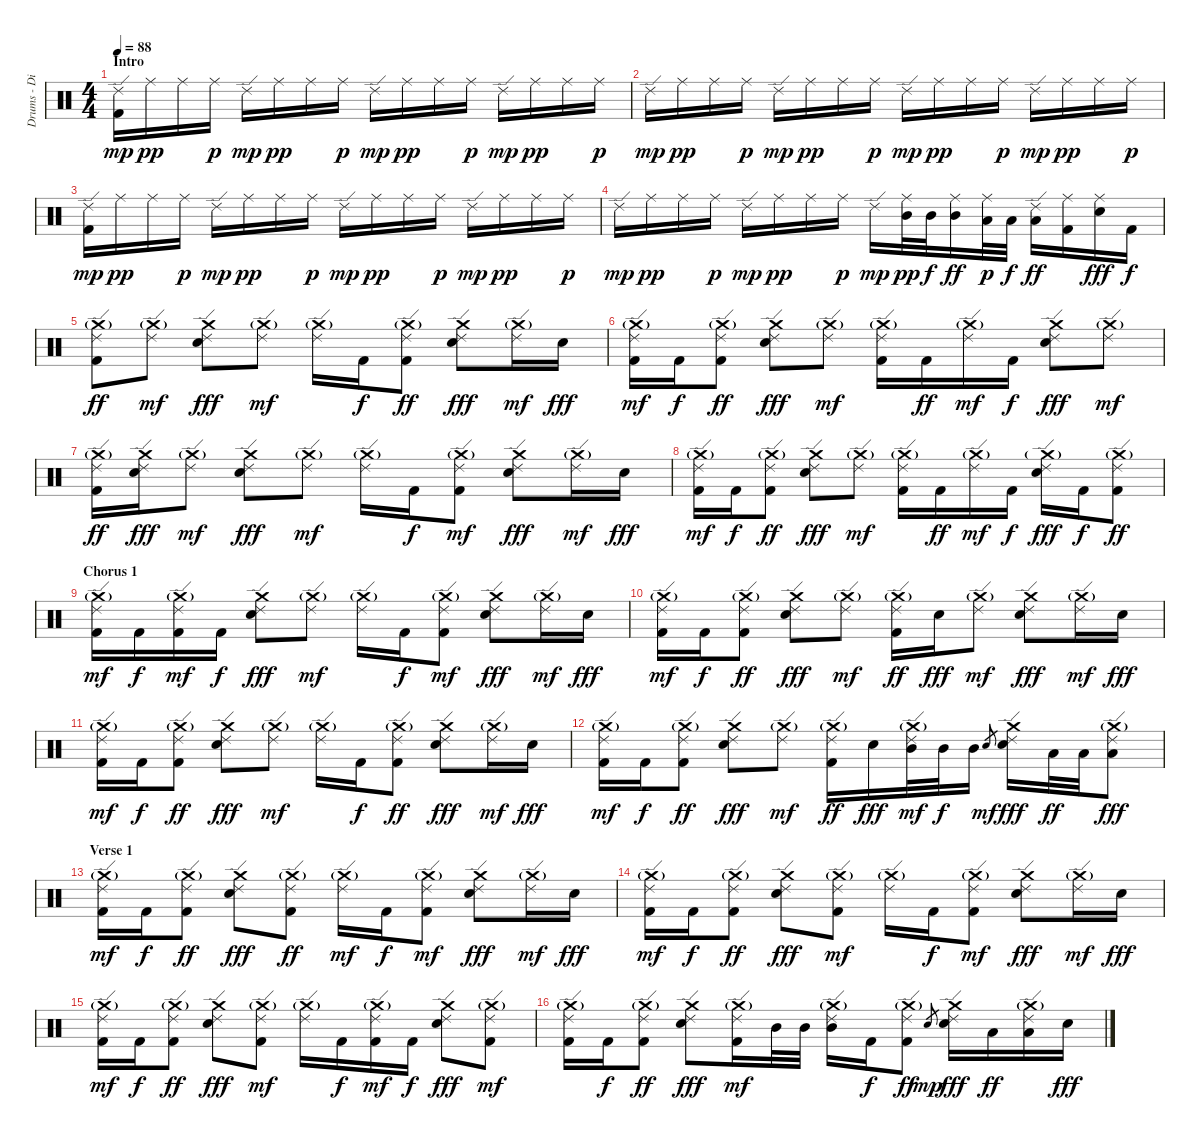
\track ("Drums - Dino Campanella" "Drums - Di") {instrument percussion}
\staff {score}
\articulation defaults
\ts (4 4)
\section ("" "Intro")
\tempo 88
\clef neutral
\ks c
("Ride (edge) 2" "Kick (hit) 2").16{dy mp} "Ride (middle)".16{dy pp} "Ride (middle)".16 "Ride (middle)".16{dy p} "Ride (edge) 2".16{dy mp} "Ride (middle)".16{dy pp} "Ride (middle)".16 "Ride (middle)".16{dy p} "Ride (edge) 2".16{dy mp} "Ride (middle)".16{dy pp} "Ride (middle)".16 "Ride (middle)".16{dy p} "Ride (edge) 2".16{dy mp} "Ride (middle)".16{dy pp} "Ride (middle)".16 "Ride (middle)".16{dy p} |
"Ride (edge) 2".16{dy mp} "Ride (middle)".16{dy pp} "Ride (middle)".16 "Ride (middle)".16{dy p} "Ride (edge) 2".16{dy mp} "Ride (middle)".16{dy pp} "Ride (middle)".16 "Ride (middle)".16{dy p} "Ride (edge) 2".16{dy mp} "Ride (middle)".16{dy pp} "Ride (middle)".16 "Ride (middle)".16{dy p} "Ride (edge) 2".16{dy mp} "Ride (middle)".16{dy pp} "Ride (middle)".16 "Ride (middle)".16{dy p} |
("Ride (edge) 2" "Kick (hit) 2").16{dy mp} "Ride (middle)".16{dy pp} "Ride (middle)".16 "Ride (middle)".16{dy p} "Ride (edge) 2".16{dy mp} "Ride (middle)".16{dy pp} "Ride (middle)".16 "Ride (middle)".16{dy p} "Ride (edge) 2".16{dy mp} "Ride (middle)".16{dy pp} "Ride (middle)".16 "Ride (middle)".16{dy p} "Ride (edge) 2".16{dy mp} "Ride (middle)".16{dy pp} "Ride (middle)".16 "Ride (middle)".16{dy p} |
"Ride (edge) 2".16{dy mp} "Ride (middle)".16{dy pp} "Ride (middle)".16 "Ride (middle)".16{dy p} "Ride (edge) 2".16{dy mp} "Ride (middle)".16{dy pp} "Ride (middle)".16 "Ride (middle)".16{dy p} "Ride (edge) 2".16{dy mp} ("Ride (middle)" "Mid Tom (hit)").32{dy pp} "Mid Tom (hit)".32{dy f} ("Ride (middle)" "Mid Tom (hit)").16{dy ff} ("Ride (middle)" "Low Tom (hit)").32{dy p} "Low Tom (hit)".32{dy f} ("Ride (edge) 2" "Low Tom (hit)").16{dy ff} ("Ride (middle)" "Kick (hit) 2").16 ("Ride (middle)" "Electric Snare (hit)").16{dy fff} "Kick (hit) 2".16{dy f} |
("Crash medium (hit)"{g} "Ride (edge) 2" "Kick (hit) 2").8{dy ff} ("Crash medium (hit)"{g} "Ride (edge) 2").8{dy mf} ("Crash medium (hit)" "Ride (edge) 2" "Electric Snare (hit)").8{dy fff} ("Crash medium (hit)"{g} "Ride (edge) 2").8{dy mf} ("Crash medium (hit)"{g} "Ride (edge) 2").16 "Kick (hit) 2".16{dy f} ("Crash medium (hit)"{g} "Ride (edge) 2" "Kick (hit) 2").8{dy ff} ("Crash medium (hit)" "Ride (edge) 2" "Electric Snare (hit)").8{dy fff} ("Crash medium (hit)"{g} "Ride (edge) 2").16{dy mf} "Electric Snare (hit)".16{dy fff} |
("Crash medium (hit)"{g} "Ride (edge) 2" "Kick (hit) 2").16{dy mf} "Kick (hit) 2".16{dy f} ("Crash medium (hit)"{g} "Ride (edge) 2" "Kick (hit) 2").8{dy ff} ("Crash medium (hit)" "Ride (edge) 2" "Electric Snare (hit)").8{dy fff} ("Crash medium (hit)"{g} "Ride (edge) 2").8{dy mf} ("Crash medium (hit)"{g} "Ride (edge) 2" "Kick (hit) 2").16 "Kick (hit) 2".16{dy ff} ("Crash medium (hit)"{g} "Ride (edge) 2").16{dy mf} "Kick (hit) 2".16{dy f} ("Crash medium (hit)" "Ride (edge) 2" "Electric Snare (hit)").8{dy fff} ("Crash medium (hit)"{g} "Ride (edge) 2").8{dy mf} |
("Crash medium (hit)"{g} "Ride (edge) 2" "Kick (hit) 2").16{dy ff} ("Crash medium (hit)" "Ride (edge) 2" "Electric Snare (hit)").16{dy fff} ("Crash medium (hit)"{g} "Ride (edge) 2").8{dy mf} ("Crash medium (hit)" "Ride (edge) 2" "Electric Snare (hit)").8{dy fff} ("Crash medium (hit)"{g} "Ride (edge) 2").8{dy mf} ("Crash medium (hit)"{g} "Ride (edge) 2").16 "Kick (hit) 2".16{dy f} ("Crash medium (hit)"{g} "Ride (edge) 2" "Kick (hit) 2").8{dy mf} ("Crash medium (hit)" "Ride (edge) 2" "Electric Snare (hit)").8{dy fff} ("Crash medium (hit)"{g} "Ride (edge) 2").16{dy mf} "Electric Snare (hit)".16{dy fff} |
("Crash medium (hit)"{g} "Ride (edge) 2" "Kick (hit) 2").16{dy mf} "Kick (hit) 2".16{dy f} ("Crash medium (hit)"{g} "Ride (edge) 2" "Kick (hit) 2").8{dy ff} ("Crash medium (hit)" "Ride (edge) 2" "Electric Snare (hit)").8{dy fff} ("Crash medium (hit)"{g} "Ride (edge) 2").8{dy mf} ("Crash medium (hit)"{g} "Ride (edge) 2" "Kick (hit) 2").16 "Kick (hit) 2".16{dy ff} ("Crash medium (hit)"{g} "Ride (edge) 2").16{dy mf} "Kick (hit) 2".16{dy f} ("Crash medium (hit)"{g} "Ride (edge) 2" "Electric Snare (hit)").16{dy fff} "Kick (hit) 2".16{dy f} ("Crash medium (hit)"{g} "Ride (edge) 2" "Kick (hit) 2").8{dy ff} |
\section ("" "Chorus 1")
("Crash medium (hit)"{g} "Ride (edge) 2" "Kick (hit) 2").16{dy mf} "Kick (hit) 2".16{dy f} ("Crash medium (hit)"{g} "Ride (edge) 2" "Kick (hit) 2").16{dy mf} "Kick (hit) 2".16{dy f} ("Crash medium (hit)" "Ride (edge) 2" "Electric Snare (hit)").8{dy fff} ("Crash medium (hit)"{g} "Ride (edge) 2").8{dy mf} ("Crash medium (hit)"{g} "Ride (edge) 2").16 "Kick (hit) 2".16{dy f} ("Crash medium (hit)"{g} "Ride (edge) 2" "Kick (hit) 2").8{dy mf} ("Crash medium (hit)" "Ride (edge) 2" "Electric Snare (hit)").8{dy fff} ("Crash medium (hit)"{g} "Ride (edge) 2").16{dy mf} "Electric Snare (hit)".16{dy fff} |
("Crash medium (hit)"{g} "Ride (edge) 2" "Kick (hit) 2").16{dy mf} "Kick (hit) 2".16{dy f} ("Crash medium (hit)"{g} "Ride (edge) 2" "Kick (hit) 2").8{dy ff} ("Crash medium (hit)" "Ride (edge) 2" "Electric Snare (hit)").8{dy fff} ("Crash medium (hit)"{g} "Ride (edge) 2").8{dy mf} ("Crash medium (hit)"{g} "Ride (edge) 2" "Kick (hit) 2").16{dy ff} "Electric Snare (hit)".16{dy fff} ("Crash medium (hit)"{g} "Ride (edge) 2").8{dy mf} ("Crash medium (hit)" "Ride (edge) 2" "Electric Snare (hit)").8{dy fff} ("Crash medium (hit)"{g} "Ride (edge) 2").16{dy mf} "Electric Snare (hit)".16{dy fff} |
("Crash medium (hit)"{g} "Ride (edge) 2" "Kick (hit) 2").16{dy mf} "Kick (hit) 2".16{dy f} ("Crash medium (hit)"{g} "Ride (edge) 2" "Kick (hit) 2").8{dy ff} ("Crash medium (hit)" "Ride (edge) 2" "Electric Snare (hit)").8{dy fff} ("Crash medium (hit)"{g} "Ride (edge) 2").8{dy mf} ("Crash medium (hit)"{g} "Ride (edge) 2").16 "Kick (hit) 2".16{dy f} ("Crash medium (hit)"{g} "Ride (edge) 2" "Kick (hit) 2").8{dy ff} ("Crash medium (hit)" "Ride (edge) 2" "Electric Snare (hit)").8{dy fff} ("Crash medium (hit)"{g} "Ride (edge) 2").16{dy mf} "Electric Snare (hit)".16{dy fff} |
("Crash medium (hit)"{g} "Ride (edge) 2" "Kick (hit) 2").16{dy mf} "Kick (hit) 2".16{dy f} ("Crash medium (hit)"{g} "Ride (edge) 2" "Kick (hit) 2").8{dy ff} ("Crash medium (hit)" "Ride (edge) 2" "Electric Snare (hit)").8{dy fff} ("Crash medium (hit)"{g} "Ride (edge) 2").8{dy mf} ("Crash medium (hit)"{g} "Ride (edge) 2" "Kick (hit) 2").16{dy ff} "Electric Snare (hit)".16{dy fff} ("Crash medium (hit)"{g} "Ride (edge) 2" "Mid Tom (hit)").32{dy mf} "Mid Tom (hit)".32{dy f} "Mid Tom (hit)".16 "Electric Snare (hit)".8{gr dy mf} ("Crash medium (hit)" "Ride (edge) 2" "Electric Snare (hit)").16{dy fff} "Low Tom (hit)".32{dy ff} "Low Tom (hit)".32 ("Crash medium (hit)"{g} "Ride (edge) 2" "Low Tom (hit)").8{dy fff} |
\section ("" "Verse 1")
("Crash medium (hit)"{g} "Ride (edge) 2" "Kick (hit) 2").16{dy mf} "Kick (hit) 2".16{dy f} ("Crash medium (hit)"{g} "Ride (edge) 2" "Kick (hit) 2").8{dy ff} ("Crash medium (hit)" "Ride (edge) 2" "Electric Snare (hit)").8{dy fff} ("Crash medium (hit)"{g} "Ride (edge) 2" "Kick (hit) 2").8{dy ff} ("Crash medium (hit)"{g} "Ride (edge) 2").16{dy mf} "Kick (hit) 2".16{dy f} ("Crash medium (hit)"{g} "Ride (edge) 2" "Kick (hit) 2").8{dy mf} ("Crash medium (hit)" "Ride (edge) 2" "Electric Snare (hit)").8{dy fff} ("Crash medium (hit)"{g} "Ride (edge) 2").16{dy mf} "Electric Snare (hit)".16{dy fff} |
("Crash medium (hit)"{g} "Ride (edge) 2" "Kick (hit) 2").16{dy mf} "Kick (hit) 2".16{dy f} ("Crash medium (hit)"{g} "Ride (edge) 2" "Kick (hit) 2").8{dy ff} ("Crash medium (hit)" "Ride (edge) 2" "Electric Snare (hit)").8{dy fff} ("Crash medium (hit)"{g} "Ride (edge) 2" "Kick (hit) 2").8{dy mf} ("Crash medium (hit)"{g} "Ride (edge) 2").16 "Kick (hit) 2".16{dy f} ("Crash medium (hit)"{g} "Ride (edge) 2" "Kick (hit) 2").8{dy mf} ("Crash medium (hit)" "Ride (edge) 2" "Electric Snare (hit)").8{dy fff} ("Crash medium (hit)"{g} "Ride (edge) 2").16{dy mf} "Electric Snare (hit)".16{dy fff} |
("Crash medium (hit)"{g} "Ride (edge) 2" "Kick (hit) 2").16{dy mf} "Kick (hit) 2".16{dy f} ("Crash medium (hit)"{g} "Ride (edge) 2" "Kick (hit) 2").8{dy ff} ("Crash medium (hit)" "Ride (edge) 2" "Electric Snare (hit)").8{dy fff} ("Crash medium (hit)"{g} "Ride (edge) 2" "Kick (hit) 2").8{dy mf} ("Crash medium (hit)"{g} "Ride (edge) 2").16 "Kick (hit) 2".16{dy f} ("Crash medium (hit)"{g} "Ride (edge) 2" "Kick (hit) 2").16{dy mf} "Kick (hit) 2".16{dy f} ("Crash medium (hit)" "Ride (edge) 2" "Electric Snare (hit)").8{dy fff} ("Crash medium (hit)"{g} "Ride (edge) 2" "Kick (hit) 2").8{dy mf} |
("Crash medium (hit)"{g} "Ride (edge) 2" "Kick (hit) 2").16 "Kick (hit) 2".16{dy f} ("Crash medium (hit)"{g} "Ride (edge) 2" "Kick (hit) 2").8{dy ff} ("Crash medium (hit)" "Ride (edge) 2" "Electric Snare (hit)").8{dy fff} ("Crash medium (hit)"{g} "Ride (edge) 2" "Kick (hit) 2").16{dy mf} "Mid Tom (hit)".32 "Mid Tom (hit)".32 ("Crash medium (hit)"{g} "Ride (edge) 2" "Mid Tom (hit)").16 "Kick (hit) 2".16{dy f} ("Crash medium (hit)"{g} "Ride (edge) 2" "Kick (hit) 2").8{dy ff} "Electric Snare (hit)".8{gr dy mp} ("Crash medium (hit)" "Ride (edge) 2" "Electric Snare (hit)").16{dy fff} "Low Tom (hit)".16{dy ff} ("Crash medium (hit)"{g} "Ride (edge) 2" "Low Tom (hit)").16 "Electric Snare (hit)".16{dy fff}
